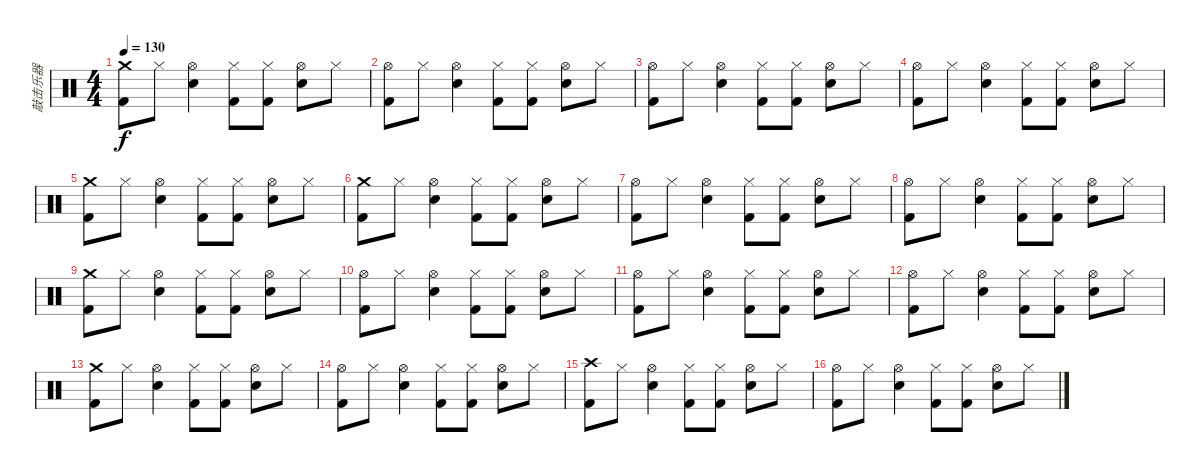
\track ("敲击乐器" "敲击乐器") {instrument percussion}
\staff {score}
\articulation defaults
\ts (4 4)
\tempo 130
\clef neutral
\ks c
("Crash medium (hit)" "Kick (hit) 2").8{dy f} "Hi-Hat (closed)".8 ("Electric Snare (hit)" "Hi-Hat (open)").4 ("Hi-Hat (closed)" "Kick (hit) 2").8 ("Hi-Hat (closed)" "Kick (hit) 2").8 ("Hi-Hat (open)" "Electric Snare (hit)").8 "Hi-Hat (closed)".8 |
("Hi-Hat (open)" "Kick (hit) 2").8 "Hi-Hat (closed)".8 ("Electric Snare (hit)" "Hi-Hat (open)").4 ("Hi-Hat (closed)" "Kick (hit) 2").8 ("Hi-Hat (closed)" "Kick (hit) 2").8 ("Hi-Hat (open)" "Electric Snare (hit)").8 "Hi-Hat (closed)".8 |
("Hi-Hat (open)" "Kick (hit) 2").8 "Hi-Hat (closed)".8 ("Electric Snare (hit)" "Hi-Hat (open)").4 ("Hi-Hat (closed)" "Kick (hit) 2").8 ("Hi-Hat (closed)" "Kick (hit) 2").8 ("Hi-Hat (open)" "Electric Snare (hit)").8 "Hi-Hat (closed)".8 |
("Hi-Hat (open)" "Kick (hit) 2").8 "Hi-Hat (closed)".8 ("Electric Snare (hit)" "Hi-Hat (open)").4 ("Hi-Hat (closed)" "Kick (hit) 2").8 ("Hi-Hat (closed)" "Kick (hit) 2").8 ("Hi-Hat (open)" "Electric Snare (hit)").8 "Hi-Hat (closed)".8 |
("Crash medium (hit)" "Kick (hit) 2").8 "Hi-Hat (closed)".8 ("Electric Snare (hit)" "Hi-Hat (open)").4 ("Hi-Hat (closed)" "Kick (hit) 2").8 ("Hi-Hat (closed)" "Kick (hit) 2").8 ("Hi-Hat (open)" "Electric Snare (hit)").8 "Hi-Hat (closed)".8 |
("Crash medium (hit)" "Kick (hit) 2").8 "Hi-Hat (closed)".8 ("Electric Snare (hit)" "Hi-Hat (open)").4 ("Hi-Hat (closed)" "Kick (hit) 2").8 ("Hi-Hat (closed)" "Kick (hit) 2").8 ("Hi-Hat (open)" "Electric Snare (hit)").8 "Hi-Hat (closed)".8 |
("Hi-Hat (open)" "Kick (hit) 2").8 "Hi-Hat (closed)".8 ("Electric Snare (hit)" "Hi-Hat (open)").4 ("Hi-Hat (closed)" "Kick (hit) 2").8 ("Hi-Hat (closed)" "Kick (hit) 2").8 ("Hi-Hat (open)" "Electric Snare (hit)").8 "Hi-Hat (closed)".8 |
("Hi-Hat (open)" "Kick (hit) 2").8 "Hi-Hat (closed)".8 ("Electric Snare (hit)" "Hi-Hat (open)").4 ("Hi-Hat (closed)" "Kick (hit) 2").8 ("Hi-Hat (closed)" "Kick (hit) 2").8 ("Hi-Hat (open)" "Electric Snare (hit)").8 "Hi-Hat (closed)".8 |
("Crash medium (hit)" "Kick (hit) 2").8 "Hi-Hat (closed)".8 ("Electric Snare (hit)" "Hi-Hat (open)").4 ("Hi-Hat (closed)" "Kick (hit) 2").8 ("Hi-Hat (closed)" "Kick (hit) 2").8 ("Hi-Hat (open)" "Electric Snare (hit)").8 "Hi-Hat (closed)".8 |
("Hi-Hat (open)" "Kick (hit) 2").8 "Hi-Hat (closed)".8 ("Electric Snare (hit)" "Hi-Hat (open)").4 ("Hi-Hat (closed)" "Kick (hit) 2").8 ("Hi-Hat (closed)" "Kick (hit) 2").8 ("Hi-Hat (open)" "Electric Snare (hit)").8 "Hi-Hat (closed)".8 |
("Hi-Hat (open)" "Kick (hit) 2").8 "Hi-Hat (closed)".8 ("Electric Snare (hit)" "Hi-Hat (open)").4 ("Hi-Hat (closed)" "Kick (hit) 2").8 ("Hi-Hat (closed)" "Kick (hit) 2").8 ("Hi-Hat (open)" "Electric Snare (hit)").8 "Hi-Hat (closed)".8 |
("Hi-Hat (open)" "Kick (hit) 2").8 "Hi-Hat (closed)".8 ("Electric Snare (hit)" "Hi-Hat (open)").4 ("Hi-Hat (closed)" "Kick (hit) 2").8 ("Hi-Hat (closed)" "Kick (hit) 2").8 ("Hi-Hat (open)" "Electric Snare (hit)").8 "Hi-Hat (closed)".8 |
("Crash medium (hit)" "Kick (hit) 2").8 "Hi-Hat (closed)".8 ("Electric Snare (hit)" "Hi-Hat (open)").4 ("Hi-Hat (closed)" "Kick (hit) 2").8 ("Hi-Hat (closed)" "Kick (hit) 2").8 ("Hi-Hat (open)" "Electric Snare (hit)").8 "Hi-Hat (closed)".8 |
("Hi-Hat (open)" "Kick (hit) 2").8 "Hi-Hat (closed)".8 ("Electric Snare (hit)" "Hi-Hat (open)").4 ("Hi-Hat (closed)" "Kick (hit) 2").8 ("Hi-Hat (closed)" "Kick (hit) 2").8 ("Hi-Hat (open)" "Electric Snare (hit)").8 "Hi-Hat (closed)".8 |
("Crash high (hit)" "Kick (hit) 2").8 "Hi-Hat (closed)".8 ("Electric Snare (hit)" "Hi-Hat (open)").4 ("Hi-Hat (closed)" "Kick (hit) 2").8 ("Hi-Hat (closed)" "Kick (hit) 2").8 ("Hi-Hat (open)" "Electric Snare (hit)").8 "Hi-Hat (closed)".8 |
("Hi-Hat (open)" "Kick (hit) 2").8 "Hi-Hat (closed)".8 ("Electric Snare (hit)" "Hi-Hat (open)").4 ("Hi-Hat (closed)" "Kick (hit) 2").8 ("Hi-Hat (closed)" "Kick (hit) 2").8 ("Hi-Hat (open)" "Electric Snare (hit)").8 "Hi-Hat (closed)".8
